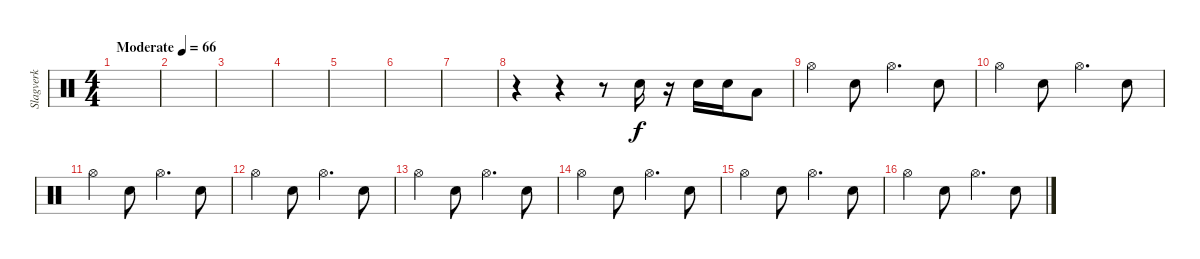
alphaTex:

\track ("Slagverk" "Slagverk") {instrument percussion}
\staff {score}
\articulation defaults
\ts (4 4)
\tempo (66 "Moderate")
\clef neutral
\ks c
|
|
|
|
|
|
|
r.4 r.4 r.8 "Snare (hit) 2".16 r.16 "Snare (hit) 2".16 "Snare (hit) 2".16 "Low Tom (hit)".8 |
"Hi-Hat (open)".4 "Snare (hit) 2".8 "Hi-Hat (open)".4{d} "Snare (hit) 2".8 |
"Hi-Hat (open)".4 "Snare (hit) 2".8 "Hi-Hat (open)".4{d} "Snare (hit) 2".8 |
"Hi-Hat (open)".4 "Snare (hit) 2".8 "Hi-Hat (open)".4{d} "Snare (hit) 2".8 |
"Hi-Hat (open)".4 "Snare (hit) 2".8 "Hi-Hat (open)".4{d} "Snare (hit) 2".8 |
"Hi-Hat (open)".4 "Snare (hit) 2".8 "Hi-Hat (open)".4{d} "Snare (hit) 2".8 |
"Hi-Hat (open)".4 "Snare (hit) 2".8 "Hi-Hat (open)".4{d} "Snare (hit) 2".8 |
"Hi-Hat (open)".4 "Snare (hit) 2".8 "Hi-Hat (open)".4{d} "Snare (hit) 2".8 |
"Hi-Hat (open)".4 "Snare (hit) 2".8 "Hi-Hat (open)".4{d} "Snare (hit) 2".8
